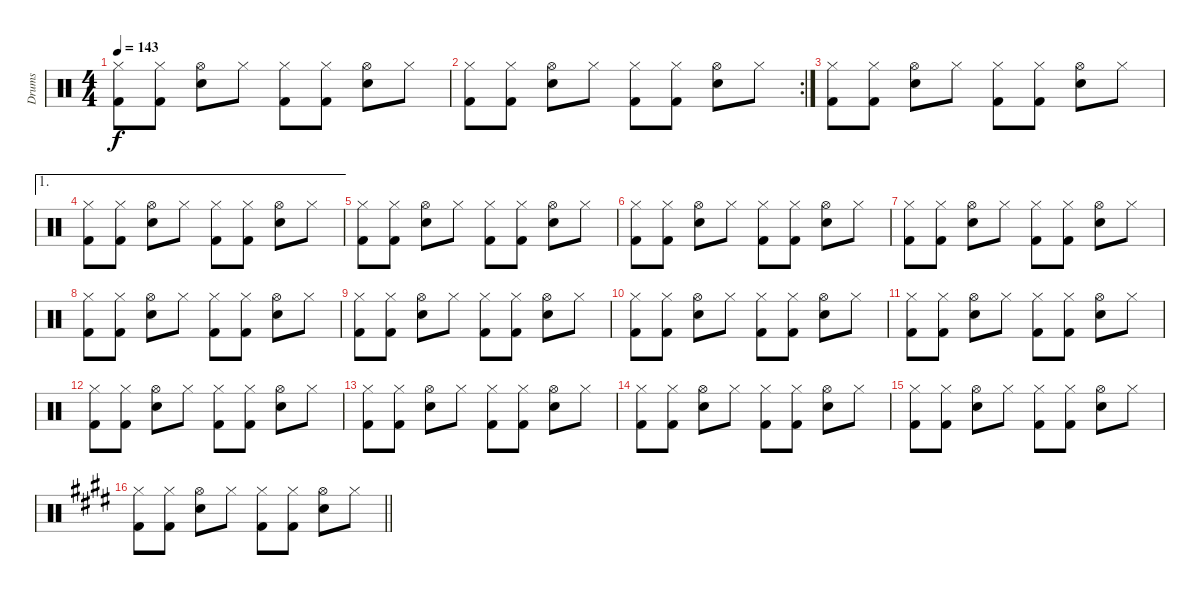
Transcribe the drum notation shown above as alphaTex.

\track ("Drums" "Drums") {instrument percussion}
\staff {score}
\articulation defaults
\ts (4 4)
\tempo 143
\clef neutral
\ks c
("Hi-Hat (closed)" "Kick (hit) 2").8{dy f} ("Hi-Hat (closed)" "Kick (hit) 2").8 ("Hi-Hat (open)" "Electric Snare (hit)").8 "Hi-Hat (closed)".8 ("Hi-Hat (closed)" "Kick (hit) 2").8 ("Hi-Hat (closed)" "Kick (hit) 2").8 ("Hi-Hat (open)" "Electric Snare (hit)").8 "Hi-Hat (closed)".8 |
\rc 2
("Hi-Hat (closed)" "Kick (hit) 2").8 ("Hi-Hat (closed)" "Kick (hit) 2").8 ("Hi-Hat (open)" "Electric Snare (hit)").8 "Hi-Hat (closed)".8 ("Hi-Hat (closed)" "Kick (hit) 2").8 ("Hi-Hat (closed)" "Kick (hit) 2").8 ("Hi-Hat (open)" "Electric Snare (hit)").8 "Hi-Hat (closed)".8 |
("Hi-Hat (closed)" "Kick (hit) 2").8 ("Hi-Hat (closed)" "Kick (hit) 2").8 ("Hi-Hat (open)" "Electric Snare (hit)").8 "Hi-Hat (closed)".8 ("Hi-Hat (closed)" "Kick (hit) 2").8 ("Hi-Hat (closed)" "Kick (hit) 2").8 ("Hi-Hat (open)" "Electric Snare (hit)").8 "Hi-Hat (closed)".8 |
\ae 1
("Hi-Hat (closed)" "Kick (hit) 2").8 ("Hi-Hat (closed)" "Kick (hit) 2").8 ("Hi-Hat (open)" "Electric Snare (hit)").8 "Hi-Hat (closed)".8 ("Hi-Hat (closed)" "Kick (hit) 2").8 ("Hi-Hat (closed)" "Kick (hit) 2").8 ("Hi-Hat (open)" "Electric Snare (hit)").8 "Hi-Hat (closed)".8 |
("Hi-Hat (closed)" "Kick (hit) 2").8 ("Hi-Hat (closed)" "Kick (hit) 2").8 ("Hi-Hat (open)" "Electric Snare (hit)").8 "Hi-Hat (closed)".8 ("Hi-Hat (closed)" "Kick (hit) 2").8 ("Hi-Hat (closed)" "Kick (hit) 2").8 ("Hi-Hat (open)" "Electric Snare (hit)").8 "Hi-Hat (closed)".8 |
("Hi-Hat (closed)" "Kick (hit) 2").8 ("Hi-Hat (closed)" "Kick (hit) 2").8 ("Hi-Hat (open)" "Electric Snare (hit)").8 "Hi-Hat (closed)".8 ("Hi-Hat (closed)" "Kick (hit) 2").8 ("Hi-Hat (closed)" "Kick (hit) 2").8 ("Hi-Hat (open)" "Electric Snare (hit)").8 "Hi-Hat (closed)".8 |
("Hi-Hat (closed)" "Kick (hit) 2").8 ("Hi-Hat (closed)" "Kick (hit) 2").8 ("Hi-Hat (open)" "Electric Snare (hit)").8 "Hi-Hat (closed)".8 ("Hi-Hat (closed)" "Kick (hit) 2").8 ("Hi-Hat (closed)" "Kick (hit) 2").8 ("Hi-Hat (open)" "Electric Snare (hit)").8 "Hi-Hat (closed)".8 |
("Hi-Hat (closed)" "Kick (hit) 2").8 ("Hi-Hat (closed)" "Kick (hit) 2").8 ("Hi-Hat (open)" "Electric Snare (hit)").8 "Hi-Hat (closed)".8 ("Hi-Hat (closed)" "Kick (hit) 2").8 ("Hi-Hat (closed)" "Kick (hit) 2").8 ("Hi-Hat (open)" "Electric Snare (hit)").8 "Hi-Hat (closed)".8 |
("Hi-Hat (closed)" "Kick (hit) 2").8 ("Hi-Hat (closed)" "Kick (hit) 2").8 ("Hi-Hat (open)" "Electric Snare (hit)").8 "Hi-Hat (closed)".8 ("Hi-Hat (closed)" "Kick (hit) 2").8 ("Hi-Hat (closed)" "Kick (hit) 2").8 ("Hi-Hat (open)" "Electric Snare (hit)").8 "Hi-Hat (closed)".8 |
("Hi-Hat (closed)" "Kick (hit) 2").8 ("Hi-Hat (closed)" "Kick (hit) 2").8 ("Hi-Hat (open)" "Electric Snare (hit)").8 "Hi-Hat (closed)".8 ("Hi-Hat (closed)" "Kick (hit) 2").8 ("Hi-Hat (closed)" "Kick (hit) 2").8 ("Hi-Hat (open)" "Electric Snare (hit)").8 "Hi-Hat (closed)".8 |
("Hi-Hat (closed)" "Kick (hit) 2").8 ("Hi-Hat (closed)" "Kick (hit) 2").8 ("Hi-Hat (open)" "Electric Snare (hit)").8 "Hi-Hat (closed)".8 ("Hi-Hat (closed)" "Kick (hit) 2").8 ("Hi-Hat (closed)" "Kick (hit) 2").8 ("Hi-Hat (open)" "Electric Snare (hit)").8 "Hi-Hat (closed)".8 |
("Hi-Hat (closed)" "Kick (hit) 2").8 ("Hi-Hat (closed)" "Kick (hit) 2").8 ("Hi-Hat (open)" "Electric Snare (hit)").8 "Hi-Hat (closed)".8 ("Hi-Hat (closed)" "Kick (hit) 2").8 ("Hi-Hat (closed)" "Kick (hit) 2").8 ("Hi-Hat (open)" "Electric Snare (hit)").8 "Hi-Hat (closed)".8 |
("Hi-Hat (closed)" "Kick (hit) 2").8 ("Hi-Hat (closed)" "Kick (hit) 2").8 ("Hi-Hat (open)" "Electric Snare (hit)").8 "Hi-Hat (closed)".8 ("Hi-Hat (closed)" "Kick (hit) 2").8 ("Hi-Hat (closed)" "Kick (hit) 2").8 ("Hi-Hat (open)" "Electric Snare (hit)").8 "Hi-Hat (closed)".8 |
("Hi-Hat (closed)" "Kick (hit) 2").8 ("Hi-Hat (closed)" "Kick (hit) 2").8 ("Hi-Hat (open)" "Electric Snare (hit)").8 "Hi-Hat (closed)".8 ("Hi-Hat (closed)" "Kick (hit) 2").8 ("Hi-Hat (closed)" "Kick (hit) 2").8 ("Hi-Hat (open)" "Electric Snare (hit)").8 "Hi-Hat (closed)".8 |
("Hi-Hat (closed)" "Kick (hit) 2").8 ("Hi-Hat (closed)" "Kick (hit) 2").8 ("Hi-Hat (open)" "Electric Snare (hit)").8 "Hi-Hat (closed)".8 ("Hi-Hat (closed)" "Kick (hit) 2").8 ("Hi-Hat (closed)" "Kick (hit) 2").8 ("Hi-Hat (open)" "Electric Snare (hit)").8 "Hi-Hat (closed)".8 |
\barLineRight lightlight
\ks c#minor
("Hi-Hat (closed)" "Kick (hit) 2").8 ("Hi-Hat (closed)" "Kick (hit) 2").8 ("Hi-Hat (open)" "Electric Snare (hit)").8 "Hi-Hat (closed)".8 ("Hi-Hat (closed)" "Kick (hit) 2").8 ("Hi-Hat (closed)" "Kick (hit) 2").8 ("Hi-Hat (open)" "Electric Snare (hit)").8 "Hi-Hat (closed)".8
